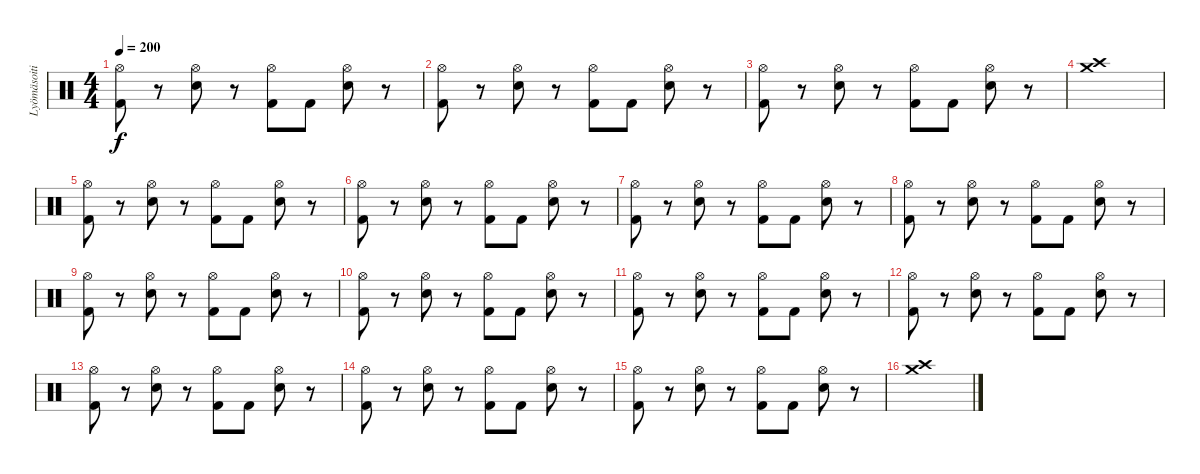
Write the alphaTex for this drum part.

\track ("Lyömäsoitin" "Lyömäsoiti") {instrument percussion}
\staff {score}
\articulation defaults
\ts (4 4)
\tempo 200
\clef neutral
\ks c
("Hi-Hat (open)" "Kick (hit) 2").8{dy f} r.8 ("Hi-Hat (open)" "Snare (hit) 2").8 r.8 ("Hi-Hat (open)" "Kick (hit) 2").8 "Kick (hit) 2".8 ("Hi-Hat (open)" "Snare (hit) 2").8 r.8 |
("Hi-Hat (open)" "Kick (hit) 2").8 r.8 ("Hi-Hat (open)" "Snare (hit) 2").8 r.8 ("Hi-Hat (open)" "Kick (hit) 2").8 "Kick (hit) 2".8 ("Hi-Hat (open)" "Snare (hit) 2").8 r.8 |
("Hi-Hat (open)" "Kick (hit) 2").8 r.8 ("Hi-Hat (open)" "Snare (hit) 2").8 r.8 ("Hi-Hat (open)" "Kick (hit) 2").8 "Kick (hit) 2".8 ("Hi-Hat (open)" "Snare (hit) 2").8 r.8 |
("Crash high (hit)" "Crash medium (hit)").1 |
("Hi-Hat (open)" "Kick (hit) 2").8 r.8 ("Hi-Hat (open)" "Snare (hit) 2").8 r.8 ("Hi-Hat (open)" "Kick (hit) 2").8 "Kick (hit) 2".8 ("Hi-Hat (open)" "Snare (hit) 2").8 r.8 |
("Hi-Hat (open)" "Kick (hit) 2").8 r.8 ("Hi-Hat (open)" "Snare (hit) 2").8 r.8 ("Hi-Hat (open)" "Kick (hit) 2").8 "Kick (hit) 2".8 ("Hi-Hat (open)" "Snare (hit) 2").8 r.8 |
("Hi-Hat (open)" "Kick (hit) 2").8 r.8 ("Hi-Hat (open)" "Snare (hit) 2").8 r.8 ("Hi-Hat (open)" "Kick (hit) 2").8 "Kick (hit) 2".8 ("Hi-Hat (open)" "Snare (hit) 2").8 r.8 |
("Hi-Hat (open)" "Kick (hit) 2").8 r.8 ("Hi-Hat (open)" "Snare (hit) 2").8 r.8 ("Hi-Hat (open)" "Kick (hit) 2").8 "Kick (hit) 2".8 ("Hi-Hat (open)" "Snare (hit) 2").8 r.8 |
("Hi-Hat (open)" "Kick (hit) 2").8 r.8 ("Hi-Hat (open)" "Snare (hit) 2").8 r.8 ("Hi-Hat (open)" "Kick (hit) 2").8 "Kick (hit) 2".8 ("Hi-Hat (open)" "Snare (hit) 2").8 r.8 |
("Hi-Hat (open)" "Kick (hit) 2").8 r.8 ("Hi-Hat (open)" "Snare (hit) 2").8 r.8 ("Hi-Hat (open)" "Kick (hit) 2").8 "Kick (hit) 2".8 ("Hi-Hat (open)" "Snare (hit) 2").8 r.8 |
("Hi-Hat (open)" "Kick (hit) 2").8 r.8 ("Hi-Hat (open)" "Snare (hit) 2").8 r.8 ("Hi-Hat (open)" "Kick (hit) 2").8 "Kick (hit) 2".8 ("Hi-Hat (open)" "Snare (hit) 2").8 r.8 |
("Hi-Hat (open)" "Kick (hit) 2").8 r.8 ("Hi-Hat (open)" "Snare (hit) 2").8 r.8 ("Hi-Hat (open)" "Kick (hit) 2").8 "Kick (hit) 2".8 ("Hi-Hat (open)" "Snare (hit) 2").8 r.8 |
("Hi-Hat (open)" "Kick (hit) 2").8 r.8 ("Hi-Hat (open)" "Snare (hit) 2").8 r.8 ("Hi-Hat (open)" "Kick (hit) 2").8 "Kick (hit) 2".8 ("Hi-Hat (open)" "Snare (hit) 2").8 r.8 |
("Hi-Hat (open)" "Kick (hit) 2").8 r.8 ("Hi-Hat (open)" "Snare (hit) 2").8 r.8 ("Hi-Hat (open)" "Kick (hit) 2").8 "Kick (hit) 2".8 ("Hi-Hat (open)" "Snare (hit) 2").8 r.8 |
("Hi-Hat (open)" "Kick (hit) 2").8 r.8 ("Hi-Hat (open)" "Snare (hit) 2").8 r.8 ("Hi-Hat (open)" "Kick (hit) 2").8 "Kick (hit) 2".8 ("Hi-Hat (open)" "Snare (hit) 2").8 r.8 |
("Crash high (hit)" "Crash medium (hit)").1
